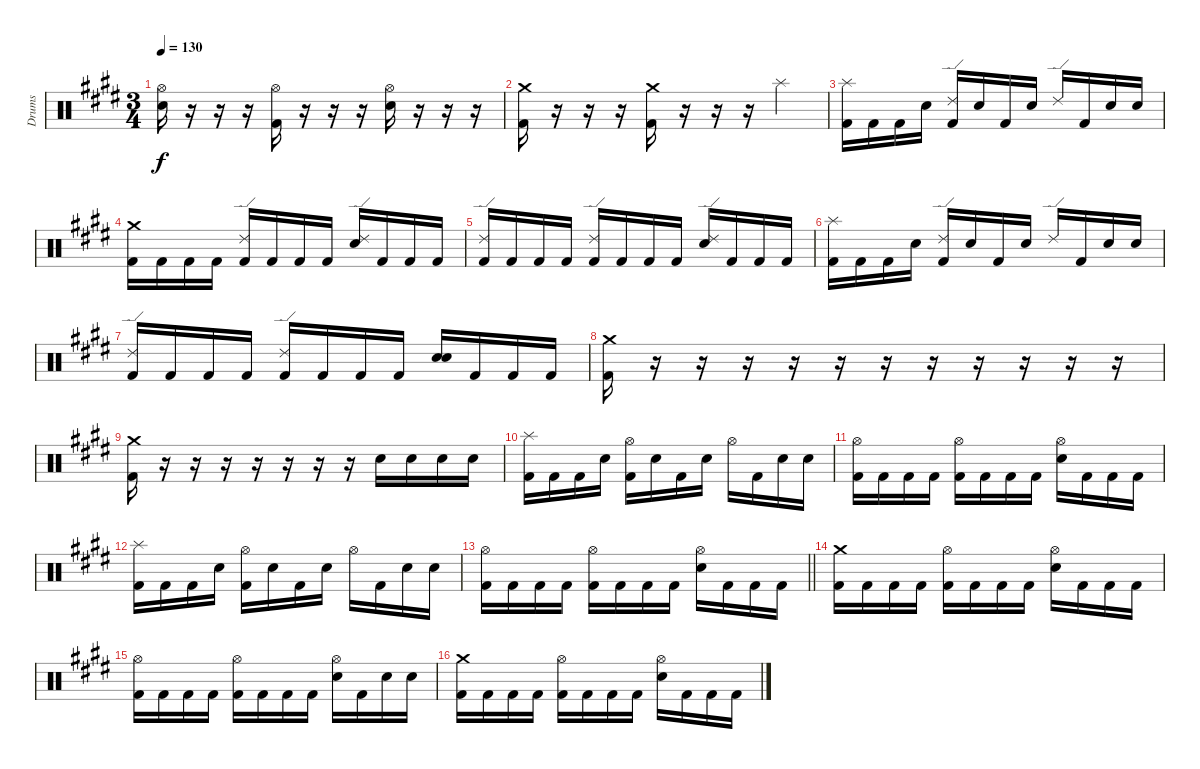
\track ("Drums" "Drums") {instrument percussion}
\staff {score}
\articulation defaults
\ts (3 4)
\tempo 130
\clef neutral
\ks e
("Electric Snare (hit)" "Hi-Hat (open)").16{dy f} r.16 r.16 r.16 ("Kick (hit) 2" "Hi-Hat (open)").16 r.16 r.16 r.16 ("Electric Snare (hit)" "Hi-Hat (open)").16 r.16 r.16 r.16 |
("Kick (hit) 2" "Crash medium (hit)").16 r.16 r.16 r.16 ("Kick (hit) 2" "Crash medium (hit)").16 r.16 r.16 r.16 "Splash (hit)".4 |
("Kick (hit) 2" "Splash (hit)").16 "Kick (hit) 2".16 "Kick (hit) 2".16 "Electric Snare (hit)".16 ("Kick (hit) 2" "Ride (edge) 2").16 "Electric Snare (hit)".16 "Kick (hit) 2".16 "Electric Snare (hit)".16 "Ride (edge) 2".16 "Kick (hit) 2".16 "Electric Snare (hit)".16 "Electric Snare (hit)".16 |
("Kick (hit) 2" "Crash medium (hit)").16 "Kick (hit) 2".16 "Kick (hit) 2".16 "Kick (hit) 2".16 ("Kick (hit) 2" "Ride (edge) 2").16 "Kick (hit) 2".16 "Kick (hit) 2".16 "Kick (hit) 2".16 ("Electric Snare (hit)" "Ride (edge) 2").16 "Kick (hit) 2".16 "Kick (hit) 2".16 "Kick (hit) 2".16 |
("Kick (hit) 2" "Ride (edge) 2").16 "Kick (hit) 2".16 "Kick (hit) 2".16 "Kick (hit) 2".16 ("Kick (hit) 2" "Ride (edge) 2").16 "Kick (hit) 2".16 "Kick (hit) 2".16 "Kick (hit) 2".16 ("Electric Snare (hit)" "Ride (edge) 2").16 "Kick (hit) 2".16 "Kick (hit) 2".16 "Kick (hit) 2".16 |
("Kick (hit) 2" "Splash (hit)").16 "Kick (hit) 2".16 "Kick (hit) 2".16 "Electric Snare (hit)".16 ("Kick (hit) 2" "Ride (edge) 2").16 "Electric Snare (hit)".16 "Kick (hit) 2".16 "Electric Snare (hit)".16 "Ride (edge) 2".16 "Kick (hit) 2".16 "Electric Snare (hit)".16 "Electric Snare (hit)".16 |
("Kick (hit) 2" "Ride (edge) 2").16 "Kick (hit) 2".16 "Kick (hit) 2".16 "Kick (hit) 2".16 ("Kick (hit) 2" "Ride (edge) 2").16 "Kick (hit) 2".16 "Kick (hit) 2".16 "Kick (hit) 2".16 ("Electric Snare (hit)" "Snare (hit)").16 "Kick (hit) 2".16 "Kick (hit) 2".16 "Kick (hit) 2".16 |
("Kick (hit) 2" "Crash medium (hit)").16 r.16 r.16 r.16 r.16 r.16 r.16 r.16 r.16 r.16 r.16 r.16 |
("Kick (hit) 2" "Crash medium (hit)").16 r.16 r.16 r.16 r.16 r.16 r.16 r.16 "Electric Snare (hit)".16 "Electric Snare (hit)".16 "Electric Snare (hit)".16 "Electric Snare (hit)".16 |
("Kick (hit) 2" "Splash (hit)").16 "Kick (hit) 2".16 "Kick (hit) 2".16 "Electric Snare (hit)".16 ("Kick (hit) 2" "Hi-Hat (open)").16 "Electric Snare (hit)".16 "Kick (hit) 2".16 "Electric Snare (hit)".16 "Hi-Hat (open)".16 "Kick (hit) 2".16 "Electric Snare (hit)".16 "Electric Snare (hit)".16 |
("Kick (hit) 2" "Hi-Hat (open)").16 "Kick (hit) 2".16 "Kick (hit) 2".16 "Kick (hit) 2".16 ("Kick (hit) 2" "Hi-Hat (open)").16 "Kick (hit) 2".16 "Kick (hit) 2".16 "Kick (hit) 2".16 ("Electric Snare (hit)" "Hi-Hat (open)").16 "Kick (hit) 2".16 "Kick (hit) 2".16 "Kick (hit) 2".16 |
("Kick (hit) 2" "Splash (hit)").16 "Kick (hit) 2".16 "Kick (hit) 2".16 "Electric Snare (hit)".16 ("Kick (hit) 2" "Hi-Hat (open)").16 "Electric Snare (hit)".16 "Kick (hit) 2".16 "Electric Snare (hit)".16 "Hi-Hat (open)".16 "Kick (hit) 2".16 "Electric Snare (hit)".16 "Electric Snare (hit)".16 |
\barLineRight lightlight
("Kick (hit) 2" "Hi-Hat (open)").16 "Kick (hit) 2".16 "Kick (hit) 2".16 "Kick (hit) 2".16 ("Kick (hit) 2" "Hi-Hat (open)").16 "Kick (hit) 2".16 "Kick (hit) 2".16 "Kick (hit) 2".16 ("Electric Snare (hit)" "Hi-Hat (open)").16 "Kick (hit) 2".16 "Kick (hit) 2".16 "Kick (hit) 2".16 |
("Kick (hit) 2" "Crash medium (hit)").16 "Kick (hit) 2".16 "Kick (hit) 2".16 "Kick (hit) 2".16 ("Kick (hit) 2" "Hi-Hat (open)").16 "Kick (hit) 2".16 "Kick (hit) 2".16 "Kick (hit) 2".16 ("Electric Snare (hit)" "Hi-Hat (open)").16 "Kick (hit) 2".16 "Kick (hit) 2".16 "Kick (hit) 2".16 |
("Kick (hit) 2" "Hi-Hat (open)").16 "Kick (hit) 2".16 "Kick (hit) 2".16 "Kick (hit) 2".16 ("Kick (hit) 2" "Hi-Hat (open)").16 "Kick (hit) 2".16 "Kick (hit) 2".16 "Kick (hit) 2".16 ("Electric Snare (hit)" "Hi-Hat (open)").16 "Kick (hit) 2".16 "Electric Snare (hit)".16 "Electric Snare (hit)".16 |
("Kick (hit) 2" "Crash medium (hit)").16 "Kick (hit) 2".16 "Kick (hit) 2".16 "Kick (hit) 2".16 ("Kick (hit) 2" "Hi-Hat (open)").16 "Kick (hit) 2".16 "Kick (hit) 2".16 "Kick (hit) 2".16 ("Electric Snare (hit)" "Hi-Hat (open)").16 "Kick (hit) 2".16 "Kick (hit) 2".16 "Kick (hit) 2".16
